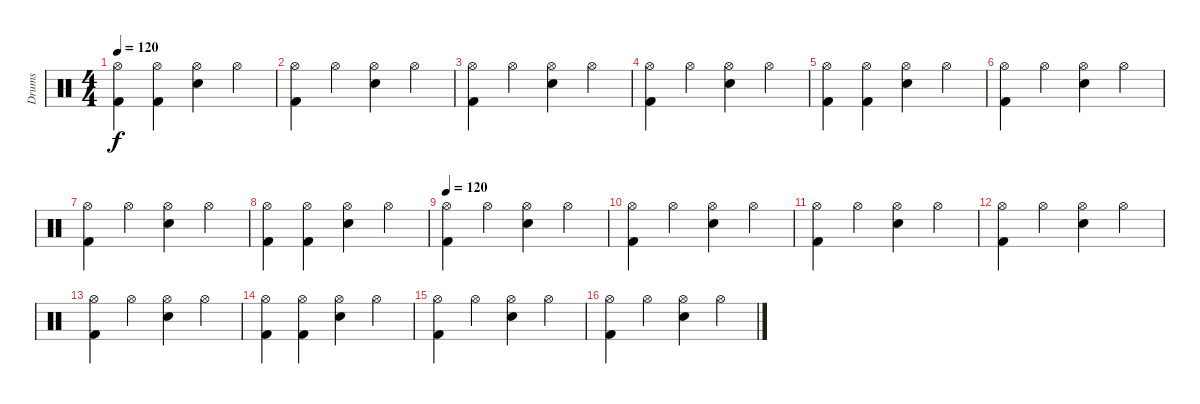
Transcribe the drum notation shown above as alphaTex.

\track ("Drums" "Drums") {instrument percussion}
\staff {score}
\articulation defaults
\ts (4 4)
\tempo 120
\clef neutral
\ks c
("Hi-Hat (open)" "Kick (hit) 2").4{dy f} ("Hi-Hat (open)" "Kick (hit) 2").4 ("Hi-Hat (open)" "Snare (hit) 2").4 "Hi-Hat (open)".4 |
("Hi-Hat (open)" "Kick (hit) 2").4 "Hi-Hat (open)".4 ("Hi-Hat (open)" "Snare (hit) 2").4 "Hi-Hat (open)".4 |
("Hi-Hat (open)" "Kick (hit) 2").4 "Hi-Hat (open)".4 ("Hi-Hat (open)" "Snare (hit) 2").4 "Hi-Hat (open)".4 |
("Hi-Hat (open)" "Kick (hit) 2").4 "Hi-Hat (open)".4 ("Hi-Hat (open)" "Snare (hit) 2").4 "Hi-Hat (open)".4 |
("Hi-Hat (open)" "Kick (hit) 2").4 ("Hi-Hat (open)" "Kick (hit) 2").4 ("Hi-Hat (open)" "Snare (hit) 2").4 "Hi-Hat (open)".4 |
("Hi-Hat (open)" "Kick (hit) 2").4 "Hi-Hat (open)".4 ("Hi-Hat (open)" "Snare (hit) 2").4 "Hi-Hat (open)".4 |
("Hi-Hat (open)" "Kick (hit) 2").4 "Hi-Hat (open)".4 ("Hi-Hat (open)" "Snare (hit) 2").4 "Hi-Hat (open)".4 |
("Hi-Hat (open)" "Kick (hit) 2").4 ("Hi-Hat (open)" "Kick (hit) 2").4 ("Hi-Hat (open)" "Snare (hit) 2").4 "Hi-Hat (open)".4 |
\tempo 120
("Hi-Hat (open)" "Kick (hit) 2").4 "Hi-Hat (open)".4 ("Hi-Hat (open)" "Snare (hit) 2").4 "Hi-Hat (open)".4 |
("Hi-Hat (open)" "Kick (hit) 2").4 "Hi-Hat (open)".4 ("Hi-Hat (open)" "Snare (hit) 2").4 "Hi-Hat (open)".4 |
("Hi-Hat (open)" "Kick (hit) 2").4 "Hi-Hat (open)".4 ("Hi-Hat (open)" "Snare (hit) 2").4 "Hi-Hat (open)".4 |
("Hi-Hat (open)" "Kick (hit) 2").4 "Hi-Hat (open)".4 ("Hi-Hat (open)" "Snare (hit) 2").4 "Hi-Hat (open)".4 |
("Hi-Hat (open)" "Kick (hit) 2").4 "Hi-Hat (open)".4 ("Hi-Hat (open)" "Snare (hit) 2").4 "Hi-Hat (open)".4 |
("Hi-Hat (open)" "Kick (hit) 2").4 ("Hi-Hat (open)" "Kick (hit) 2").4 ("Hi-Hat (open)" "Snare (hit) 2").4 "Hi-Hat (open)".4 |
("Hi-Hat (open)" "Kick (hit) 2").4 "Hi-Hat (open)".4 ("Hi-Hat (open)" "Snare (hit) 2").4 "Hi-Hat (open)".4 |
("Hi-Hat (open)" "Kick (hit) 2").4 "Hi-Hat (open)".4 ("Hi-Hat (open)" "Snare (hit) 2").4 "Hi-Hat (open)".4
